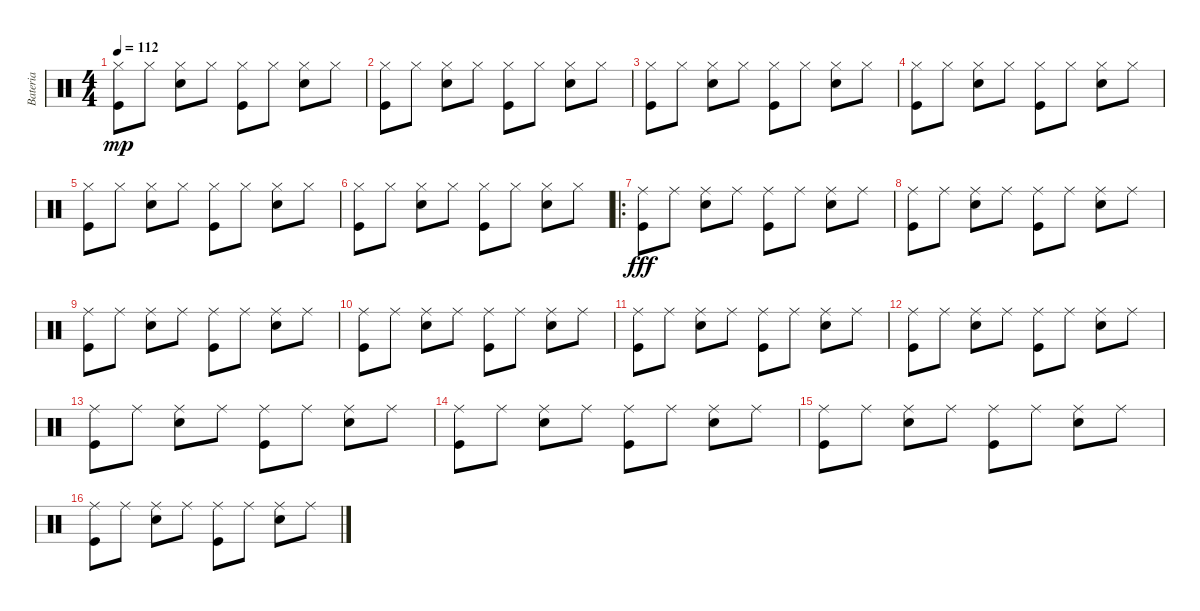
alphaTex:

\track ("Bateria" "Bateria") {instrument percussion}
\staff {score}
\articulation defaults
\ts (4 4)
\tempo 112
\clef neutral
\ks c
("Hi-Hat (closed)" "Kick (hit)").8{dy mp} "Hi-Hat (closed)".8 ("Hi-Hat (closed)" "Snare (hit) 2").8 "Hi-Hat (closed)".8 ("Hi-Hat (closed)" "Kick (hit)").8 "Hi-Hat (closed)".8 ("Hi-Hat (closed)" "Snare (hit) 2").8 "Hi-Hat (closed)".8 |
("Hi-Hat (closed)" "Kick (hit)").8 "Hi-Hat (closed)".8 ("Hi-Hat (closed)" "Snare (hit) 2").8 "Hi-Hat (closed)".8 ("Hi-Hat (closed)" "Kick (hit)").8 "Hi-Hat (closed)".8 ("Hi-Hat (closed)" "Snare (hit) 2").8 "Hi-Hat (closed)".8 |
("Hi-Hat (closed)" "Kick (hit)").8 "Hi-Hat (closed)".8 ("Hi-Hat (closed)" "Snare (hit) 2").8 "Hi-Hat (closed)".8 ("Hi-Hat (closed)" "Kick (hit)").8 "Hi-Hat (closed)".8 ("Hi-Hat (closed)" "Snare (hit) 2").8 "Hi-Hat (closed)".8 |
("Hi-Hat (closed)" "Kick (hit)").8 "Hi-Hat (closed)".8 ("Hi-Hat (closed)" "Snare (hit) 2").8 "Hi-Hat (closed)".8 ("Hi-Hat (closed)" "Kick (hit)").8 "Hi-Hat (closed)".8 ("Hi-Hat (closed)" "Snare (hit) 2").8 "Hi-Hat (closed)".8 |
("Hi-Hat (closed)" "Kick (hit)").8 "Hi-Hat (closed)".8 ("Hi-Hat (closed)" "Snare (hit) 2").8 "Hi-Hat (closed)".8 ("Hi-Hat (closed)" "Kick (hit)").8 "Hi-Hat (closed)".8 ("Hi-Hat (closed)" "Snare (hit) 2").8 "Hi-Hat (closed)".8 |
("Hi-Hat (closed)" "Kick (hit)").8 "Hi-Hat (closed)".8 ("Hi-Hat (closed)" "Snare (hit) 2").8 "Hi-Hat (closed)".8 ("Hi-Hat (closed)" "Kick (hit)").8 "Hi-Hat (closed)".8 ("Hi-Hat (closed)" "Snare (hit) 2").8 "Hi-Hat (closed)".8 |
\ro
("Ride (middle)" "Kick (hit)").8{dy fff} "Ride (middle)".8 ("Ride (middle)" "Snare (hit) 2").8 "Ride (middle)".8 ("Ride (middle)" "Kick (hit)").8 "Ride (middle)".8 ("Ride (middle)" "Snare (hit) 2").8 "Ride (middle)".8 |
("Ride (middle)" "Kick (hit)").8 "Ride (middle)".8 ("Ride (middle)" "Snare (hit) 2").8 "Ride (middle)".8 ("Ride (middle)" "Kick (hit)").8 "Ride (middle)".8 ("Ride (middle)" "Snare (hit) 2").8 "Ride (middle)".8 |
("Ride (middle)" "Kick (hit)").8 "Ride (middle)".8 ("Ride (middle)" "Snare (hit) 2").8 "Ride (middle)".8 ("Ride (middle)" "Kick (hit)").8 "Ride (middle)".8 ("Ride (middle)" "Snare (hit) 2").8 "Ride (middle)".8 |
("Ride (middle)" "Kick (hit)").8 "Ride (middle)".8 ("Ride (middle)" "Snare (hit) 2").8 "Ride (middle)".8 ("Ride (middle)" "Kick (hit)").8 "Ride (middle)".8 ("Ride (middle)" "Snare (hit) 2").8 "Ride (middle)".8 |
("Ride (middle)" "Kick (hit)").8 "Ride (middle)".8 ("Ride (middle)" "Snare (hit) 2").8 "Ride (middle)".8 ("Ride (middle)" "Kick (hit)").8 "Ride (middle)".8 ("Ride (middle)" "Snare (hit) 2").8 "Ride (middle)".8 |
("Ride (middle)" "Kick (hit)").8 "Ride (middle)".8 ("Ride (middle)" "Snare (hit) 2").8 "Ride (middle)".8 ("Ride (middle)" "Kick (hit)").8 "Ride (middle)".8 ("Ride (middle)" "Snare (hit) 2").8 "Ride (middle)".8 |
("Ride (middle)" "Kick (hit)").8 "Ride (middle)".8 ("Ride (middle)" "Snare (hit) 2").8 "Ride (middle)".8 ("Ride (middle)" "Kick (hit)").8 "Ride (middle)".8 ("Ride (middle)" "Snare (hit) 2").8 "Ride (middle)".8 |
("Ride (middle)" "Kick (hit)").8 "Ride (middle)".8 ("Ride (middle)" "Snare (hit) 2").8 "Ride (middle)".8 ("Ride (middle)" "Kick (hit)").8 "Ride (middle)".8 ("Ride (middle)" "Snare (hit) 2").8 "Ride (middle)".8 |
("Ride (middle)" "Kick (hit)").8 "Ride (middle)".8 ("Ride (middle)" "Snare (hit) 2").8 "Ride (middle)".8 ("Ride (middle)" "Kick (hit)").8 "Ride (middle)".8 ("Ride (middle)" "Snare (hit) 2").8 "Ride (middle)".8 |
("Ride (middle)" "Kick (hit)").8 "Ride (middle)".8 ("Ride (middle)" "Snare (hit) 2").8 "Ride (middle)".8 ("Ride (middle)" "Kick (hit)").8 "Ride (middle)".8 ("Ride (middle)" "Snare (hit) 2").8 "Ride (middle)".8
